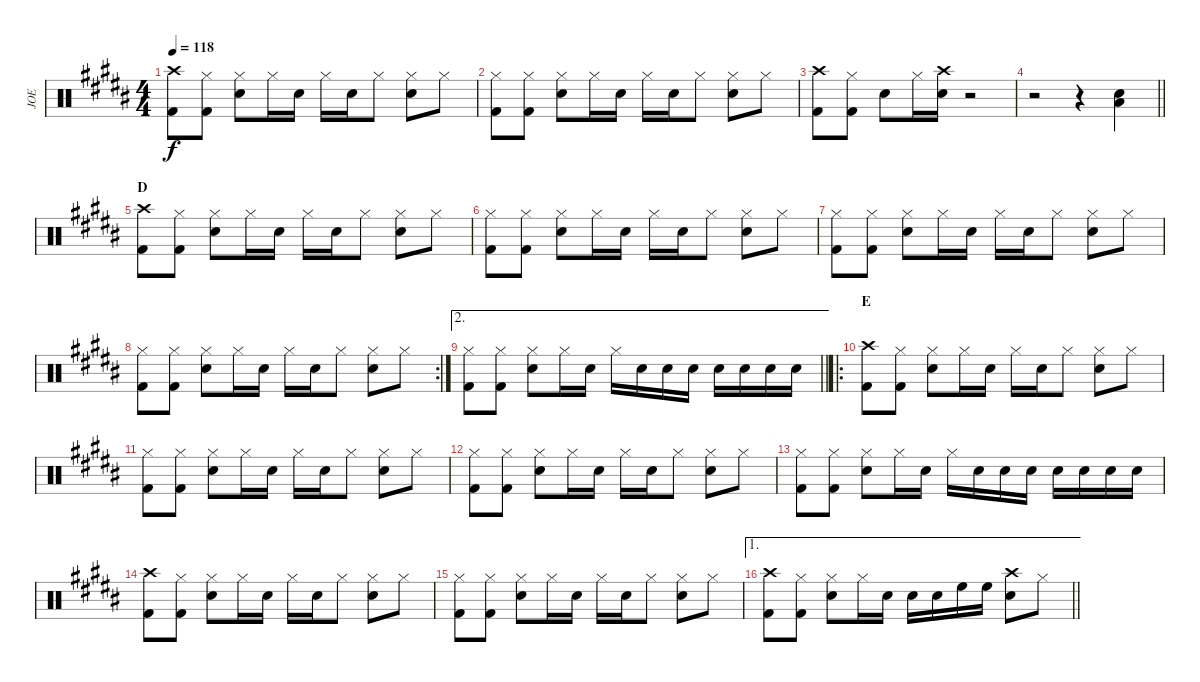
\track ("JOE" "JOE") {instrument percussion}
\staff {score}
\articulation defaults
\ts (4 4)
\tempo 118
\clef neutral
\ks b
("Crash high (hit)" "Kick (hit) 2").8{dy f} ("Hi-Hat (closed)" "Kick (hit) 2").8 ("Hi-Hat (closed)" "Snare (hit) 2").8 "Hi-Hat (closed)".16 "Snare (hit) 2".16 "Hi-Hat (closed)".16 "Snare (hit) 2".16 "Hi-Hat (closed)".8 ("Hi-Hat (closed)" "Snare (hit) 2").8 "Hi-Hat (closed)".8 |
("Hi-Hat (closed)" "Kick (hit) 2").8 ("Hi-Hat (closed)" "Kick (hit) 2").8 ("Hi-Hat (closed)" "Snare (hit) 2").8 "Hi-Hat (closed)".16 "Snare (hit) 2".16 "Hi-Hat (closed)".16 "Snare (hit) 2".16 "Hi-Hat (closed)".8 ("Hi-Hat (closed)" "Snare (hit) 2").8 "Hi-Hat (closed)".8 |
("Crash high (hit)" "Kick (hit) 2").8 ("Hi-Hat (closed)" "Kick (hit) 2").8 "Snare (hit) 2".8 "Hi-Hat (closed)".16 ("Crash high (hit)" "Snare (hit) 2").16 r.2 |
\barLineRight lightlight
r.2 r.4 ("Low Floor Tom (hit)" "Snare (hit) 2").4 |
\section ("" "D")
("Crash high (hit)" "Kick (hit) 2").8 ("Hi-Hat (closed)" "Kick (hit) 2").8 ("Hi-Hat (closed)" "Snare (hit) 2").8 "Hi-Hat (closed)".16 "Snare (hit) 2".16 "Hi-Hat (closed)".16 "Snare (hit) 2".16 "Hi-Hat (closed)".8 ("Hi-Hat (closed)" "Snare (hit) 2").8 "Hi-Hat (closed)".8 |
("Hi-Hat (closed)" "Kick (hit) 2").8 ("Hi-Hat (closed)" "Kick (hit) 2").8 ("Hi-Hat (closed)" "Snare (hit) 2").8 "Hi-Hat (closed)".16 "Snare (hit) 2".16 "Hi-Hat (closed)".16 "Snare (hit) 2".16 "Hi-Hat (closed)".8 ("Hi-Hat (closed)" "Snare (hit) 2").8 "Hi-Hat (closed)".8 |
("Hi-Hat (closed)" "Kick (hit) 2").8 ("Hi-Hat (closed)" "Kick (hit) 2").8 ("Hi-Hat (closed)" "Snare (hit) 2").8 "Hi-Hat (closed)".16 "Snare (hit) 2".16 "Hi-Hat (closed)".16 "Snare (hit) 2".16 "Hi-Hat (closed)".8 ("Hi-Hat (closed)" "Snare (hit) 2").8 "Hi-Hat (closed)".8 |
\rc 2
("Hi-Hat (closed)" "Kick (hit) 2").8 ("Hi-Hat (closed)" "Kick (hit) 2").8 ("Hi-Hat (closed)" "Snare (hit) 2").8 "Hi-Hat (closed)".16 "Snare (hit) 2".16 "Hi-Hat (closed)".16 "Snare (hit) 2".16 "Hi-Hat (closed)".8 ("Hi-Hat (closed)" "Snare (hit) 2").8 "Hi-Hat (closed)".8 |
\ae 2
\barLineRight lightlight
("Hi-Hat (closed)" "Kick (hit) 2").8 ("Hi-Hat (closed)" "Kick (hit) 2").8 ("Hi-Hat (closed)" "Snare (hit) 2").8 "Hi-Hat (closed)".16 "Snare (hit) 2".16 "Hi-Hat (closed)".16 "Snare (hit) 2".16 "Snare (hit) 2".16 "Snare (hit) 2".16 "Snare (hit) 2".16 "Snare (hit) 2".16 "Snare (hit) 2".16 "Snare (hit) 2".16 |
\ro
\section ("" "E")
("Crash high (hit)" "Kick (hit) 2").8 ("Hi-Hat (closed)" "Kick (hit) 2").8 ("Hi-Hat (closed)" "Snare (hit) 2").8 "Hi-Hat (closed)".16 "Snare (hit) 2".16 "Hi-Hat (closed)".16 "Snare (hit) 2".16 "Hi-Hat (closed)".8 ("Hi-Hat (closed)" "Snare (hit) 2").8 "Hi-Hat (closed)".8 |
("Hi-Hat (closed)" "Kick (hit) 2").8 ("Hi-Hat (closed)" "Kick (hit) 2").8 ("Hi-Hat (closed)" "Snare (hit) 2").8 "Hi-Hat (closed)".16 "Snare (hit) 2".16 "Hi-Hat (closed)".16 "Snare (hit) 2".16 "Hi-Hat (closed)".8 ("Hi-Hat (closed)" "Snare (hit) 2").8 "Hi-Hat (closed)".8 |
("Hi-Hat (closed)" "Kick (hit) 2").8 ("Hi-Hat (closed)" "Kick (hit) 2").8 ("Hi-Hat (closed)" "Snare (hit) 2").8 "Hi-Hat (closed)".16 "Snare (hit) 2".16 "Hi-Hat (closed)".16 "Snare (hit) 2".16 "Hi-Hat (closed)".8 ("Hi-Hat (closed)" "Snare (hit) 2").8 "Hi-Hat (closed)".8 |
("Hi-Hat (closed)" "Kick (hit) 2").8 ("Hi-Hat (closed)" "Kick (hit) 2").8 ("Hi-Hat (closed)" "Snare (hit) 2").8 "Hi-Hat (closed)".16 "Snare (hit) 2".16 "Hi-Hat (closed)".16 "Snare (hit) 2".16 "Snare (hit) 2".16 "Snare (hit) 2".16 "Snare (hit) 2".16 "Snare (hit) 2".16 "Snare (hit) 2".16 "Snare (hit) 2".16 |
("Crash high (hit)" "Kick (hit) 2").8 ("Hi-Hat (closed)" "Kick (hit) 2").8 ("Hi-Hat (closed)" "Snare (hit) 2").8 "Hi-Hat (closed)".16 "Snare (hit) 2".16 "Hi-Hat (closed)".16 "Snare (hit) 2".16 "Hi-Hat (closed)".8 ("Hi-Hat (closed)" "Snare (hit) 2").8 "Hi-Hat (closed)".8 |
("Hi-Hat (closed)" "Kick (hit) 2").8 ("Hi-Hat (closed)" "Kick (hit) 2").8 ("Hi-Hat (closed)" "Snare (hit) 2").8 "Hi-Hat (closed)".16 "Snare (hit) 2".16 "Hi-Hat (closed)".16 "Snare (hit) 2".16 "Hi-Hat (closed)".8 ("Hi-Hat (closed)" "Snare (hit) 2").8 "Hi-Hat (closed)".8 |
\ae 1
\barLineRight lightlight
("Crash high (hit)" "Kick (hit) 2").8 ("Hi-Hat (closed)" "Kick (hit) 2").8 ("Hi-Hat (closed)" "Snare (hit) 2").8 "Hi-Hat (closed)".16 "Snare (hit) 2".16 "Snare (hit) 2".16 "Snare (hit) 2".16 "High Floor Tom (hit)".16 "High Floor Tom (hit)".16 ("Crash high (hit)" "Snare (hit) 2").8 "Hi-Hat (closed)".8
